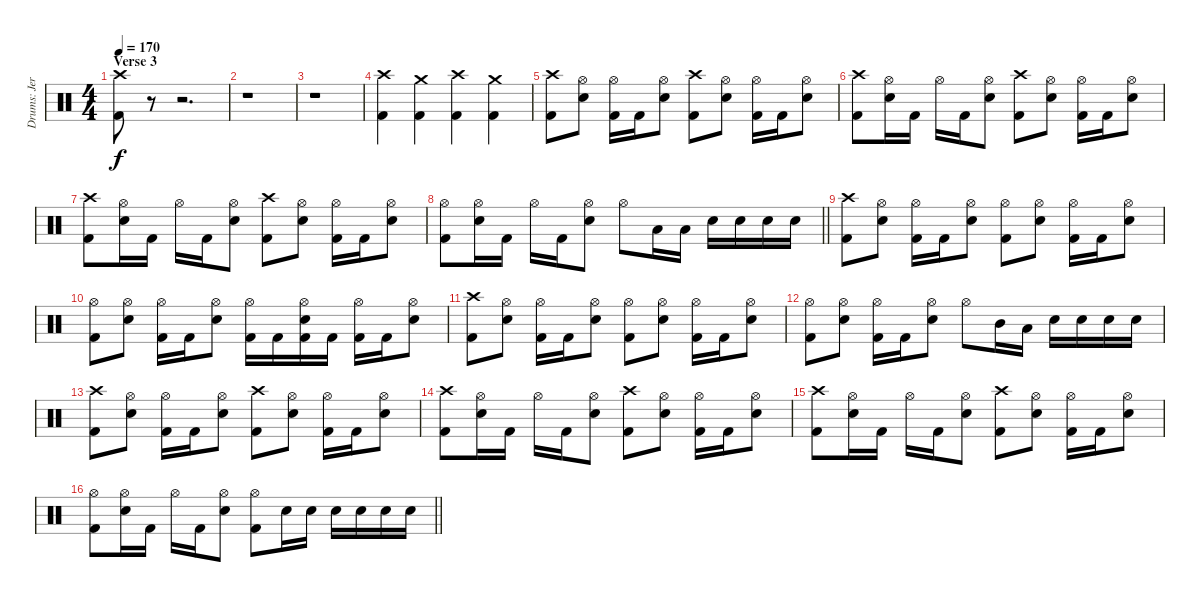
\track ("Drums: Jere Luokkamäki" "Drums: Jer") {instrument percussion}
\staff {score}
\articulation defaults
\ts (4 4)
\section ("" "Verse 3")
\tempo 170
\clef neutral
\ks aminor
("Crash high (hit)" "Kick (hit) 2").8{dy f} r.8 r.2{d} |
r.1 |
r.1 |
("Crash high (hit)" "Kick (hit) 2").4 ("Crash medium (hit)" "Kick (hit) 2").4 ("Crash high (hit)" "Kick (hit) 2").4 ("Crash medium (hit)" "Kick (hit) 2").4 |
("Crash high (hit)" "Kick (hit) 2").8 ("Hi-Hat (open)" "Electric Snare (hit)").8 ("Hi-Hat (open)" "Kick (hit) 2").16 "Kick (hit) 2".16 ("Hi-Hat (open)" "Electric Snare (hit)").8 ("Crash high (hit)" "Kick (hit) 2").8 ("Hi-Hat (open)" "Electric Snare (hit)").8 ("Hi-Hat (open)" "Kick (hit) 2").16 "Kick (hit) 2".16 ("Hi-Hat (open)" "Electric Snare (hit)").8 |
("Crash high (hit)" "Kick (hit) 2").8 ("Hi-Hat (open)" "Electric Snare (hit)").16 "Kick (hit) 2".16 "Hi-Hat (open)".16 "Kick (hit) 2".16 ("Hi-Hat (open)" "Electric Snare (hit)").8 ("Crash high (hit)" "Kick (hit) 2").8 ("Hi-Hat (open)" "Electric Snare (hit)").8 ("Hi-Hat (open)" "Kick (hit) 2").16 "Kick (hit) 2".16 ("Hi-Hat (open)" "Electric Snare (hit)").8 |
("Crash high (hit)" "Kick (hit) 2").8 ("Hi-Hat (open)" "Electric Snare (hit)").16 "Kick (hit) 2".16 "Hi-Hat (open)".16 "Kick (hit) 2".16 ("Hi-Hat (open)" "Electric Snare (hit)").8 ("Crash high (hit)" "Kick (hit) 2").8 ("Hi-Hat (open)" "Electric Snare (hit)").8 ("Hi-Hat (open)" "Kick (hit) 2").16 "Kick (hit) 2".16 ("Hi-Hat (open)" "Electric Snare (hit)").8 |
\barLineRight lightlight
("Hi-Hat (open)" "Kick (hit) 2").8 ("Hi-Hat (open)" "Electric Snare (hit)").16 "Kick (hit) 2".16 "Hi-Hat (open)".16 "Kick (hit) 2".16 ("Hi-Hat (open)" "Electric Snare (hit)").8 "Hi-Hat (open)".8 "Low Tom (hit)".16 "Low Tom (hit)".16 "Electric Snare (hit)".16 "Electric Snare (hit)".16 "Electric Snare (hit)".16 "Electric Snare (hit)".16 |
("Crash high (hit)" "Kick (hit) 2").8 ("Hi-Hat (open)" "Electric Snare (hit)").8 ("Hi-Hat (open)" "Kick (hit) 2").16 "Kick (hit) 2".16 ("Hi-Hat (open)" "Electric Snare (hit)").8 ("Hi-Hat (open)" "Kick (hit) 2").8 ("Hi-Hat (open)" "Electric Snare (hit)").8 ("Hi-Hat (open)" "Kick (hit) 2").16 "Kick (hit) 2".16 ("Hi-Hat (open)" "Electric Snare (hit)").8 |
("Hi-Hat (open)" "Kick (hit) 2").8 ("Hi-Hat (open)" "Electric Snare (hit)").8 ("Hi-Hat (open)" "Kick (hit) 2").16 "Kick (hit) 2".16 ("Hi-Hat (open)" "Electric Snare (hit)").8 ("Hi-Hat (open)" "Kick (hit) 2").16 "Kick (hit) 2".16 ("Hi-Hat (open)" "Electric Snare (hit)" "Kick (hit) 2").16 "Kick (hit) 2".16 ("Hi-Hat (open)" "Kick (hit) 2").16 "Kick (hit) 2".16 ("Hi-Hat (open)" "Electric Snare (hit)").8 |
("Crash high (hit)" "Kick (hit) 2").8 ("Hi-Hat (open)" "Electric Snare (hit)").8 ("Hi-Hat (open)" "Kick (hit) 2").16 "Kick (hit) 2".16 ("Hi-Hat (open)" "Electric Snare (hit)").8 ("Hi-Hat (open)" "Kick (hit) 2").8 ("Hi-Hat (open)" "Electric Snare (hit)").8 ("Hi-Hat (open)" "Kick (hit) 2").16 "Kick (hit) 2".16 ("Hi-Hat (open)" "Electric Snare (hit)").8 |
("Hi-Hat (open)" "Kick (hit) 2").8 ("Hi-Hat (open)" "Electric Snare (hit)").8 ("Hi-Hat (open)" "Kick (hit) 2").16 "Kick (hit) 2".16 ("Hi-Hat (open)" "Electric Snare (hit)").8 "Hi-Hat (open)".8 "Mid Tom (hit)".16 "Low Tom (hit)".16 "Electric Snare (hit)".16 "Electric Snare (hit)".16 "Electric Snare (hit)".16 "Electric Snare (hit)".16 |
("Crash high (hit)" "Kick (hit) 2").8 ("Hi-Hat (open)" "Electric Snare (hit)").8 ("Hi-Hat (open)" "Kick (hit) 2").16 "Kick (hit) 2".16 ("Hi-Hat (open)" "Electric Snare (hit)").8 ("Crash high (hit)" "Kick (hit) 2").8 ("Hi-Hat (open)" "Electric Snare (hit)").8 ("Hi-Hat (open)" "Kick (hit) 2").16 "Kick (hit) 2".16 ("Hi-Hat (open)" "Electric Snare (hit)").8 |
("Crash high (hit)" "Kick (hit) 2").8 ("Hi-Hat (open)" "Electric Snare (hit)").16 "Kick (hit) 2".16 "Hi-Hat (open)".16 "Kick (hit) 2".16 ("Hi-Hat (open)" "Electric Snare (hit)").8 ("Crash high (hit)" "Kick (hit) 2").8 ("Hi-Hat (open)" "Electric Snare (hit)").8 ("Hi-Hat (open)" "Kick (hit) 2").16 "Kick (hit) 2".16 ("Hi-Hat (open)" "Electric Snare (hit)").8 |
("Crash high (hit)" "Kick (hit) 2").8 ("Hi-Hat (open)" "Electric Snare (hit)").16 "Kick (hit) 2".16 "Hi-Hat (open)".16 "Kick (hit) 2".16 ("Hi-Hat (open)" "Electric Snare (hit)").8 ("Crash high (hit)" "Kick (hit) 2").8 ("Hi-Hat (open)" "Electric Snare (hit)").8 ("Hi-Hat (open)" "Kick (hit) 2").16 "Kick (hit) 2".16 ("Hi-Hat (open)" "Electric Snare (hit)").8 |
\barLineRight lightlight
("Hi-Hat (open)" "Kick (hit) 2").8 ("Hi-Hat (open)" "Electric Snare (hit)").16 "Kick (hit) 2".16 "Hi-Hat (open)".16 "Kick (hit) 2".16 ("Hi-Hat (open)" "Electric Snare (hit)").8 ("Hi-Hat (open)" "Kick (hit) 2").8 "Electric Snare (hit)".16 "Electric Snare (hit)".16 "Electric Snare (hit)".16 "Electric Snare (hit)".16 "Electric Snare (hit)".16 "Electric Snare (hit)".16
